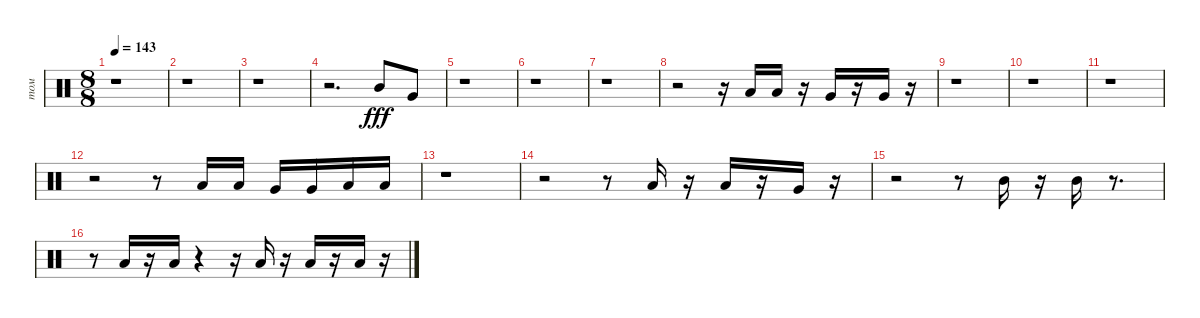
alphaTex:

\track ("том" "том") {instrument percussion}
\staff {score}
\articulation defaults
\ts (8 8)
\tempo 143
\clef neutral
\ks c
r.1{dy fff} |
r.1 |
r.1 |
r.2{d} "Mid Tom (hit)".8 "Very Low Tom (hit)".8 |
r.1 |
r.1 |
r.1 |
r.2 r.16 "Low Tom (hit)".16 "Low Tom (hit)".16 r.16 "Very Low Tom (hit)".16 r.16 "Very Low Tom (hit)".16 r.16 |
r.1 |
r.1 |
r.1 |
r.2 r.8 "Low Tom (hit)".16 "Low Tom (hit)".16 "Very Low Tom (hit)".16 "Very Low Tom (hit)".16 "Low Floor Tom (hit)".16 "Low Floor Tom (hit)".16 |
r.1 |
r.2 r.8 "Low Tom (hit)".16 r.16 "Low Tom (hit)".16 r.16 "Very Low Tom (hit)".16 r.16 |
r.2 r.8 "Mid Tom (hit)".16 r.16 "Mid Tom (hit)".16 r.8{d} |
r.8 "Low Tom (hit)".16 r.16 "Low Tom (hit)".16 r.4 r.16 "Low Floor Tom (hit)".16 r.16 "Low Floor Tom (hit)".16 r.16 "Low Floor Tom (hit)".16 r.16
